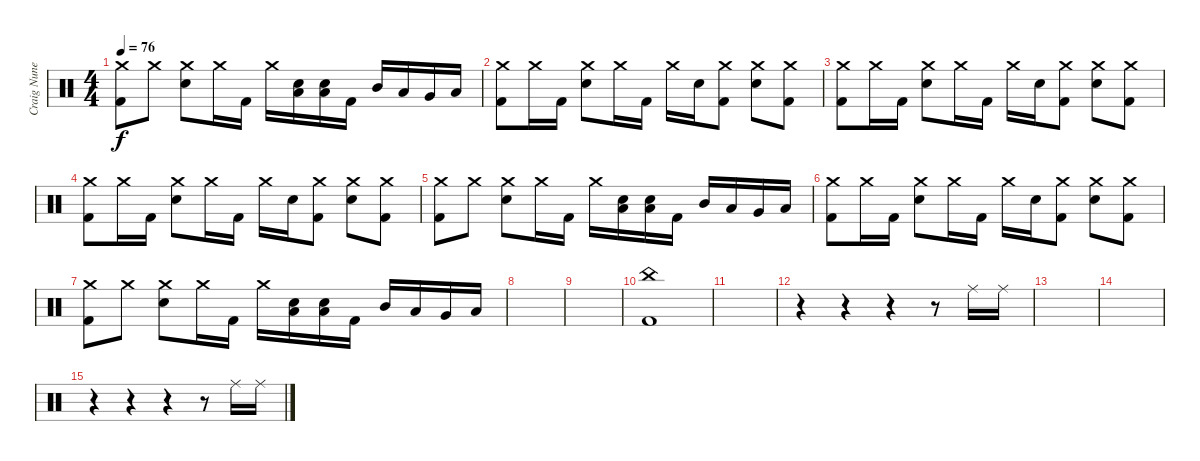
\track ("Craig Nunenmacher" "Craig Nune") {instrument percussion}
\staff {score}
\articulation defaults
\ts (4 4)
\tempo 76
\clef neutral
\ks c
("Crash medium (hit)" "Kick (hit) 2").8{dy f} "Crash medium (hit)".8 ("Crash medium (hit)" "Snare (hit) 2").8 "Crash medium (hit)".16 "Kick (hit) 2".16 "Crash medium (hit)".16 ("Snare (hit) 2" "Low Tom (hit)").16 ("Snare (hit) 2" "Low Tom (hit)").16 "Kick (hit) 2".16 "Mid Tom (hit)".16 "Low Tom (hit)".16 "Very Low Tom (hit)".16 "Low Floor Tom (hit)".16 |
("Crash medium (hit)" "Kick (hit) 2").8 "Crash medium (hit)".16 "Kick (hit) 2".16 ("Crash medium (hit)" "Snare (hit) 2").8 "Crash medium (hit)".16 "Kick (hit) 2".16 "Crash medium (hit)".16 "Snare (hit) 2".16 ("Crash medium (hit)" "Kick (hit) 2").8 ("Crash medium (hit)" "Snare (hit) 2").8 ("Crash medium (hit)" "Kick (hit) 2").8 |
("Crash medium (hit)" "Kick (hit) 2").8 "Crash medium (hit)".16 "Kick (hit) 2".16 ("Crash medium (hit)" "Snare (hit) 2").8 "Crash medium (hit)".16 "Kick (hit) 2".16 "Crash medium (hit)".16 "Snare (hit) 2".16 ("Crash medium (hit)" "Kick (hit) 2").8 ("Crash medium (hit)" "Snare (hit) 2").8 ("Crash medium (hit)" "Kick (hit) 2").8 |
("Crash medium (hit)" "Kick (hit) 2").8 "Crash medium (hit)".16 "Kick (hit) 2".16 ("Crash medium (hit)" "Snare (hit) 2").8 "Crash medium (hit)".16 "Kick (hit) 2".16 "Crash medium (hit)".16 "Snare (hit) 2".16 ("Crash medium (hit)" "Kick (hit) 2").8 ("Crash medium (hit)" "Snare (hit) 2").8 ("Crash medium (hit)" "Kick (hit) 2").8 |
("Crash medium (hit)" "Kick (hit) 2").8 "Crash medium (hit)".8 ("Crash medium (hit)" "Snare (hit) 2").8 "Crash medium (hit)".16 "Kick (hit) 2".16 "Crash medium (hit)".16 ("Snare (hit) 2" "Low Tom (hit)").16 ("Snare (hit) 2" "Low Tom (hit)").16 "Kick (hit) 2".16 "Mid Tom (hit)".16 "Low Tom (hit)".16 "Very Low Tom (hit)".16 "Low Floor Tom (hit)".16 |
("Crash medium (hit)" "Kick (hit) 2").8 "Crash medium (hit)".16 "Kick (hit) 2".16 ("Crash medium (hit)" "Snare (hit) 2").8 "Crash medium (hit)".16 "Kick (hit) 2".16 "Crash medium (hit)".16 "Snare (hit) 2".16 ("Crash medium (hit)" "Kick (hit) 2").8 ("Crash medium (hit)" "Snare (hit) 2").8 ("Crash medium (hit)" "Kick (hit) 2").8 |
("Crash medium (hit)" "Kick (hit) 2").8 "Crash medium (hit)".8 ("Crash medium (hit)" "Snare (hit) 2").8 "Crash medium (hit)".16 "Kick (hit) 2".16 "Crash medium (hit)".16 ("Snare (hit) 2" "Low Tom (hit)").16 ("Snare (hit) 2" "Low Tom (hit)").16 "Kick (hit) 2".16 "Mid Tom (hit)".16 "Low Tom (hit)".16 "Very Low Tom (hit)".16 "Low Floor Tom (hit)".16 |
|
|
("China (hit)" "Kick (hit) 2").1 |
|
r.4 r.4 r.4 r.8 "Ride (middle)".16 "Ride (middle)".16 |
|
|
r.4 r.4 r.4 r.8 "Ride (middle)".16 "Ride (middle)".16
